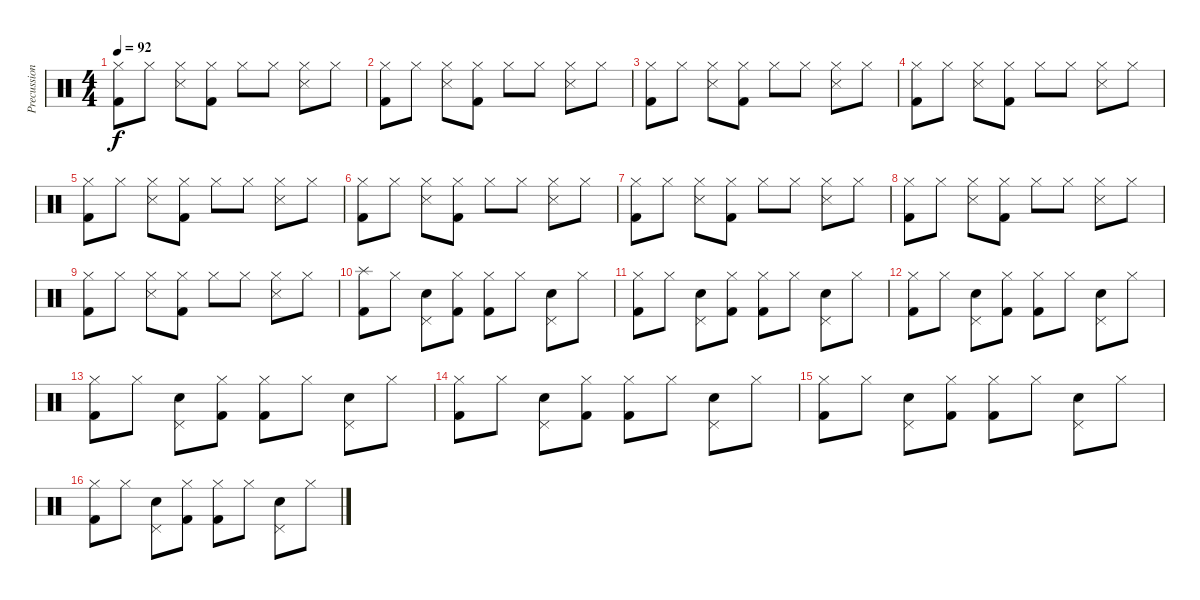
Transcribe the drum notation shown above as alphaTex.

\track ("Precussion" "Precussion") {instrument percussion}
\staff {score}
\articulation defaults
\ts (4 4)
\tempo 92
\clef neutral
\ks c
("Hi-Hat (closed)" "Kick (hit) 2").8{dy f} "Hi-Hat (closed)".8 ("Hi-Hat (closed)" "Snare (side stick) 3").8 ("Hi-Hat (closed)" "Kick (hit) 2").8 "Hi-Hat (closed)".8 "Hi-Hat (closed)".8 ("Hi-Hat (closed)" "Snare (side stick) 3").8 "Hi-Hat (closed)".8 |
("Hi-Hat (closed)" "Kick (hit) 2").8 "Hi-Hat (closed)".8 ("Hi-Hat (closed)" "Snare (side stick) 3").8 ("Hi-Hat (closed)" "Kick (hit) 2").8 "Hi-Hat (closed)".8 "Hi-Hat (closed)".8 ("Hi-Hat (closed)" "Snare (side stick) 3").8 "Hi-Hat (closed)".8 |
("Hi-Hat (closed)" "Kick (hit) 2").8 "Hi-Hat (closed)".8 ("Hi-Hat (closed)" "Snare (side stick) 3").8 ("Hi-Hat (closed)" "Kick (hit) 2").8 "Hi-Hat (closed)".8 "Hi-Hat (closed)".8 ("Hi-Hat (closed)" "Snare (side stick) 3").8 "Hi-Hat (closed)".8 |
("Hi-Hat (closed)" "Kick (hit) 2").8 "Hi-Hat (closed)".8 ("Hi-Hat (closed)" "Snare (side stick) 3").8 ("Hi-Hat (closed)" "Kick (hit) 2").8 "Hi-Hat (closed)".8 "Hi-Hat (closed)".8 ("Hi-Hat (closed)" "Snare (side stick) 3").8 "Hi-Hat (closed)".8 |
("Hi-Hat (closed)" "Kick (hit) 2").8 "Hi-Hat (closed)".8 ("Hi-Hat (closed)" "Snare (side stick) 3").8 ("Hi-Hat (closed)" "Kick (hit) 2").8 "Hi-Hat (closed)".8 "Hi-Hat (closed)".8 ("Hi-Hat (closed)" "Snare (side stick) 3").8 "Hi-Hat (closed)".8 |
("Hi-Hat (closed)" "Kick (hit) 2").8 "Hi-Hat (closed)".8 ("Hi-Hat (closed)" "Snare (side stick) 3").8 ("Hi-Hat (closed)" "Kick (hit) 2").8 "Hi-Hat (closed)".8 "Hi-Hat (closed)".8 ("Hi-Hat (closed)" "Snare (side stick) 3").8 "Hi-Hat (closed)".8 |
("Hi-Hat (closed)" "Kick (hit) 2").8 "Hi-Hat (closed)".8 ("Hi-Hat (closed)" "Snare (side stick) 3").8 ("Hi-Hat (closed)" "Kick (hit) 2").8 "Hi-Hat (closed)".8 "Hi-Hat (closed)".8 ("Hi-Hat (closed)" "Snare (side stick) 3").8 "Hi-Hat (closed)".8 |
("Hi-Hat (closed)" "Kick (hit) 2").8 "Hi-Hat (closed)".8 ("Hi-Hat (closed)" "Snare (side stick) 3").8 ("Hi-Hat (closed)" "Kick (hit) 2").8 "Hi-Hat (closed)".8 "Hi-Hat (closed)".8 ("Hi-Hat (closed)" "Snare (side stick) 3").8 "Hi-Hat (closed)".8 |
("Hi-Hat (closed)" "Kick (hit) 2").8 "Hi-Hat (closed)".8 ("Hi-Hat (closed)" "Snare (side stick) 3").8 ("Hi-Hat (closed)" "Kick (hit) 2").8 "Hi-Hat (closed)".8 "Hi-Hat (closed)".8 ("Hi-Hat (closed)" "Snare (side stick) 3").8 "Hi-Hat (closed)".8 |
("Splash (hit)" "Kick (hit) 2").8 "Hi-Hat (closed)".8 ("Pedal Hi-Hat (hit)" "Snare (hit) 2").8 ("Hi-Hat (closed)" "Kick (hit) 2").8 ("Hi-Hat (closed)" "Kick (hit) 2").8 "Hi-Hat (closed)".8 ("Pedal Hi-Hat (hit)" "Snare (hit) 2").8 "Hi-Hat (closed)".8 |
("Hi-Hat (closed)" "Kick (hit) 2").8 "Hi-Hat (closed)".8 ("Pedal Hi-Hat (hit)" "Snare (hit) 2").8 ("Hi-Hat (closed)" "Kick (hit) 2").8 ("Hi-Hat (closed)" "Kick (hit) 2").8 "Hi-Hat (closed)".8 ("Pedal Hi-Hat (hit)" "Snare (hit) 2").8 "Hi-Hat (closed)".8 |
("Hi-Hat (closed)" "Kick (hit) 2").8 "Hi-Hat (closed)".8 ("Pedal Hi-Hat (hit)" "Snare (hit) 2").8 ("Hi-Hat (closed)" "Kick (hit) 2").8 ("Hi-Hat (closed)" "Kick (hit) 2").8 "Hi-Hat (closed)".8 ("Pedal Hi-Hat (hit)" "Snare (hit) 2").8 "Hi-Hat (closed)".8 |
("Hi-Hat (closed)" "Kick (hit) 2").8 "Hi-Hat (closed)".8 ("Pedal Hi-Hat (hit)" "Snare (hit) 2").8 ("Hi-Hat (closed)" "Kick (hit) 2").8 ("Hi-Hat (closed)" "Kick (hit) 2").8 "Hi-Hat (closed)".8 ("Pedal Hi-Hat (hit)" "Snare (hit) 2").8 "Hi-Hat (closed)".8 |
("Hi-Hat (closed)" "Kick (hit) 2").8 "Hi-Hat (closed)".8 ("Pedal Hi-Hat (hit)" "Snare (hit) 2").8 ("Hi-Hat (closed)" "Kick (hit) 2").8 ("Hi-Hat (closed)" "Kick (hit) 2").8 "Hi-Hat (closed)".8 ("Pedal Hi-Hat (hit)" "Snare (hit) 2").8 "Hi-Hat (closed)".8 |
("Hi-Hat (closed)" "Kick (hit) 2").8 "Hi-Hat (closed)".8 ("Pedal Hi-Hat (hit)" "Snare (hit) 2").8 ("Hi-Hat (closed)" "Kick (hit) 2").8 ("Hi-Hat (closed)" "Kick (hit) 2").8 "Hi-Hat (closed)".8 ("Pedal Hi-Hat (hit)" "Snare (hit) 2").8 "Hi-Hat (closed)".8 |
("Hi-Hat (closed)" "Kick (hit) 2").8 "Hi-Hat (closed)".8 ("Pedal Hi-Hat (hit)" "Snare (hit) 2").8 ("Hi-Hat (closed)" "Kick (hit) 2").8 ("Hi-Hat (closed)" "Kick (hit) 2").8 "Hi-Hat (closed)".8 ("Pedal Hi-Hat (hit)" "Snare (hit) 2").8 "Hi-Hat (closed)".8
